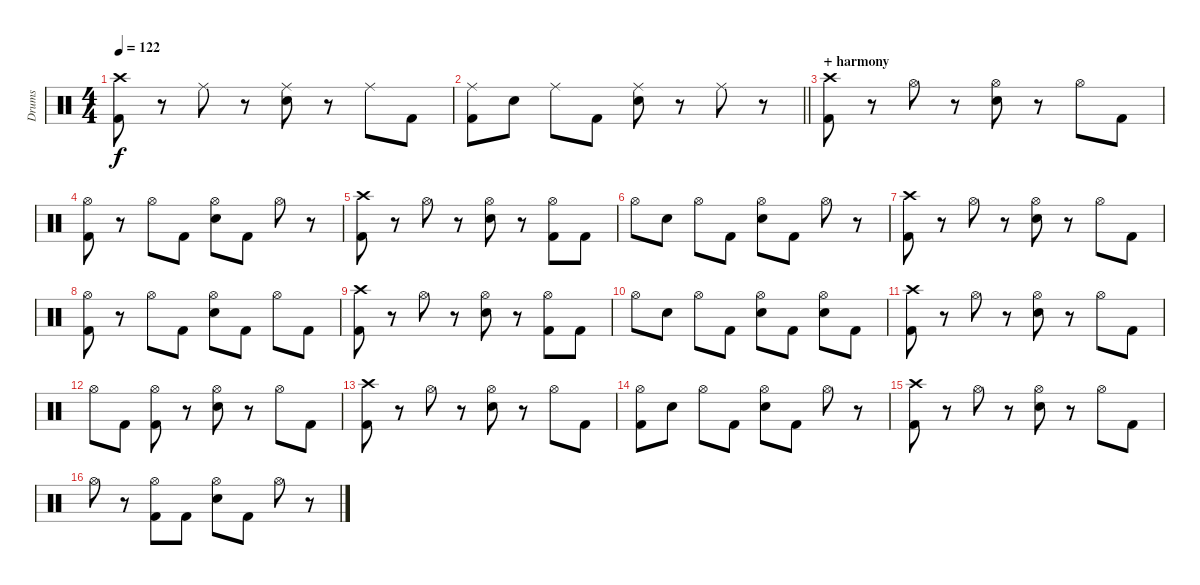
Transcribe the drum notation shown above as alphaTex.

\track ("Drums" "Drums") {instrument percussion}
\staff {score}
\articulation defaults
\ts (4 4)
\tempo 122
\clef neutral
\ks c
("Crash high (hit)" "Kick (hit) 2").8{dy f} r.8 "Ride (middle)".8 r.8 ("Ride (middle)" "Electric Snare (hit)").8 r.8 "Ride (middle)".8 "Kick (hit) 2".8 |
\barLineRight lightlight
("Ride (middle)" "Kick (hit) 2").8 "Electric Snare (hit)".8 "Ride (middle)".8 "Kick (hit) 2".8 ("Ride (middle)" "Electric Snare (hit)").8 r.8 "Ride (middle)".8 r.8 |
\section ("" "+ harmony")
("Crash high (hit)" "Kick (hit) 2").8 r.8 "Hi-Hat (open)".8 r.8 ("Hi-Hat (open)" "Electric Snare (hit)").8 r.8 "Hi-Hat (open)".8 "Kick (hit) 2".8 |
("Hi-Hat (open)" "Kick (hit) 2").8 r.8 "Hi-Hat (open)".8 "Kick (hit) 2".8 ("Hi-Hat (open)" "Electric Snare (hit)").8 "Kick (hit) 2".8 "Hi-Hat (open)".8 r.8 |
("Crash high (hit)" "Kick (hit) 2").8 r.8 "Hi-Hat (open)".8 r.8 ("Hi-Hat (open)" "Electric Snare (hit)").8 r.8 ("Hi-Hat (open)" "Kick (hit) 2").8 "Kick (hit) 2".8 |
"Hi-Hat (open)".8 "Electric Snare (hit)".8 "Hi-Hat (open)".8 "Kick (hit) 2".8 ("Hi-Hat (open)" "Electric Snare (hit)").8 "Kick (hit) 2".8 "Hi-Hat (open)".8 r.8 |
("Crash high (hit)" "Kick (hit) 2").8 r.8 "Hi-Hat (open)".8 r.8 ("Hi-Hat (open)" "Electric Snare (hit)").8 r.8 "Hi-Hat (open)".8 "Kick (hit) 2".8 |
("Hi-Hat (open)" "Kick (hit) 2").8 r.8 "Hi-Hat (open)".8 "Kick (hit) 2".8 ("Hi-Hat (open)" "Electric Snare (hit)").8 "Kick (hit) 2".8 "Hi-Hat (open)".8 "Kick (hit) 2".8 |
("Crash high (hit)" "Kick (hit) 2").8 r.8 "Hi-Hat (open)".8 r.8 ("Hi-Hat (open)" "Electric Snare (hit)").8 r.8 ("Hi-Hat (open)" "Kick (hit) 2").8 "Kick (hit) 2".8 |
"Hi-Hat (open)".8 "Electric Snare (hit)".8 "Hi-Hat (open)".8 "Kick (hit) 2".8 ("Hi-Hat (open)" "Electric Snare (hit)").8 "Kick (hit) 2".8 ("Hi-Hat (open)" "Electric Snare (hit)").8 "Kick (hit) 2".8 |
("Crash high (hit)" "Kick (hit) 2").8 r.8 "Hi-Hat (open)".8 r.8 ("Hi-Hat (open)" "Electric Snare (hit)").8 r.8 "Hi-Hat (open)".8 "Kick (hit) 2".8 |
"Hi-Hat (open)".8 "Kick (hit) 2".8 ("Hi-Hat (open)" "Kick (hit) 2").8 r.8 ("Hi-Hat (open)" "Electric Snare (hit)").8 r.8 "Hi-Hat (open)".8 "Kick (hit) 2".8 |
("Crash high (hit)" "Kick (hit) 2").8 r.8 "Hi-Hat (open)".8 r.8 ("Hi-Hat (open)" "Electric Snare (hit)").8 r.8 "Hi-Hat (open)".8 "Kick (hit) 2".8 |
("Hi-Hat (open)" "Kick (hit) 2").8 "Electric Snare (hit)".8 "Hi-Hat (open)".8 "Kick (hit) 2".8 ("Hi-Hat (open)" "Electric Snare (hit)").8 "Kick (hit) 2".8 "Hi-Hat (open)".8 r.8 |
("Crash high (hit)" "Kick (hit) 2").8 r.8 "Hi-Hat (open)".8 r.8 ("Hi-Hat (open)" "Electric Snare (hit)").8 r.8 "Hi-Hat (open)".8 "Kick (hit) 2".8 |
"Hi-Hat (open)".8 r.8 ("Hi-Hat (open)" "Kick (hit) 2").8 "Kick (hit) 2".8 ("Hi-Hat (open)" "Electric Snare (hit)").8 "Kick (hit) 2".8 "Hi-Hat (open)".8 r.8
